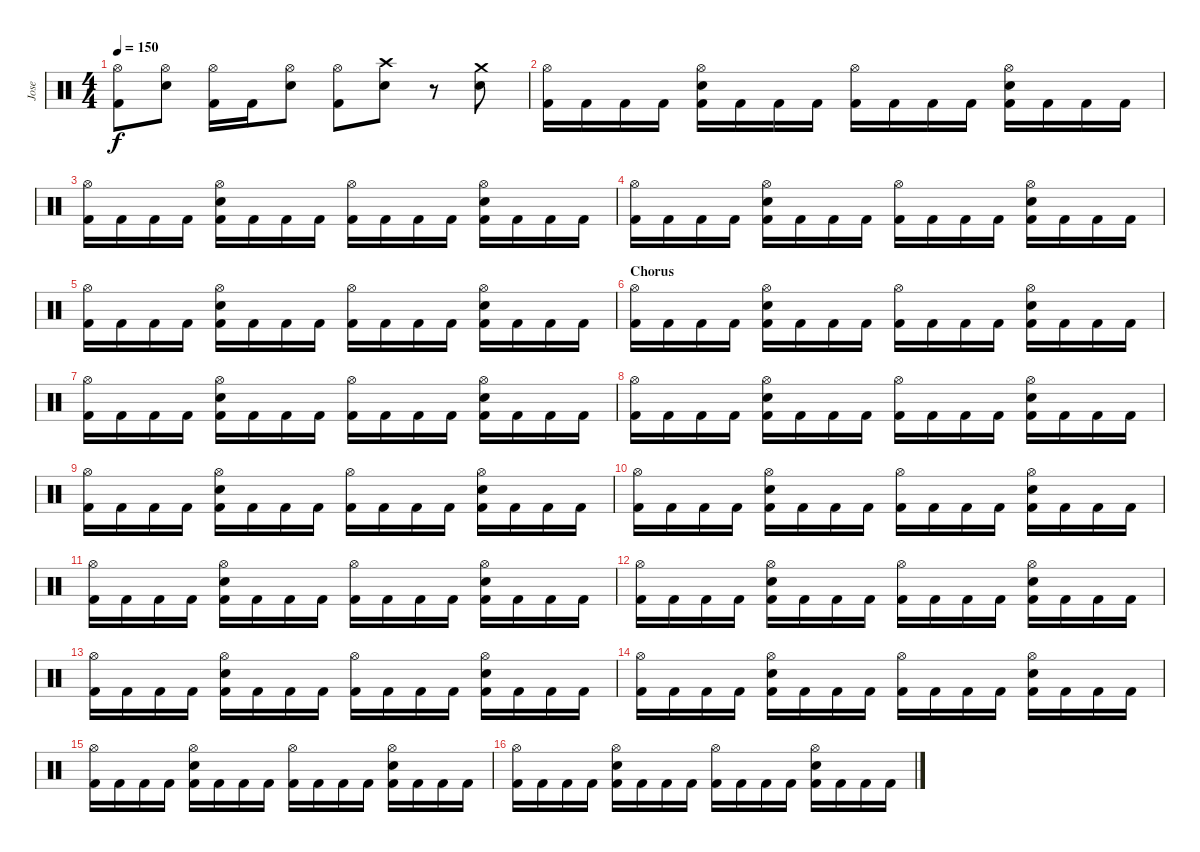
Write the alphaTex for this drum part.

\track ("Jose" "Jose") {instrument percussion}
\staff {score}
\articulation defaults
\ts (4 4)
\tempo 150
\clef neutral
\ks c
("Hi-Hat (open)" "Kick (hit) 2").8{dy f} ("Hi-Hat (open)" "Snare (hit) 2").8 ("Hi-Hat (open)" "Kick (hit) 2").16 "Kick (hit) 2".16 ("Hi-Hat (open)" "Snare (hit) 2").8 ("Hi-Hat (open)" "Kick (hit) 2").8 ("Crash high (hit)" "Snare (hit) 2").8 r.8 ("Crash medium (hit)" "Snare (hit) 2").8 |
("Hi-Hat (open)" "Kick (hit) 2").16 "Kick (hit) 2".16 "Kick (hit) 2".16 "Kick (hit) 2".16 ("Kick (hit) 2" "Snare (hit) 2" "Hi-Hat (open)").16 "Kick (hit) 2".16 "Kick (hit) 2".16 "Kick (hit) 2".16 ("Kick (hit) 2" "Hi-Hat (open)").16 "Kick (hit) 2".16 "Kick (hit) 2".16 "Kick (hit) 2".16 ("Kick (hit) 2" "Snare (hit) 2" "Hi-Hat (open)").16 "Kick (hit) 2".16 "Kick (hit) 2".16 "Kick (hit) 2".16 |
("Hi-Hat (open)" "Kick (hit) 2").16 "Kick (hit) 2".16 "Kick (hit) 2".16 "Kick (hit) 2".16 ("Kick (hit) 2" "Snare (hit) 2" "Hi-Hat (open)").16 "Kick (hit) 2".16 "Kick (hit) 2".16 "Kick (hit) 2".16 ("Kick (hit) 2" "Hi-Hat (open)").16 "Kick (hit) 2".16 "Kick (hit) 2".16 "Kick (hit) 2".16 ("Kick (hit) 2" "Snare (hit) 2" "Hi-Hat (open)").16 "Kick (hit) 2".16 "Kick (hit) 2".16 "Kick (hit) 2".16 |
("Hi-Hat (open)" "Kick (hit) 2").16 "Kick (hit) 2".16 "Kick (hit) 2".16 "Kick (hit) 2".16 ("Kick (hit) 2" "Snare (hit) 2" "Hi-Hat (open)").16 "Kick (hit) 2".16 "Kick (hit) 2".16 "Kick (hit) 2".16 ("Kick (hit) 2" "Hi-Hat (open)").16 "Kick (hit) 2".16 "Kick (hit) 2".16 "Kick (hit) 2".16 ("Kick (hit) 2" "Snare (hit) 2" "Hi-Hat (open)").16 "Kick (hit) 2".16 "Kick (hit) 2".16 "Kick (hit) 2".16 |
("Hi-Hat (open)" "Kick (hit) 2").16 "Kick (hit) 2".16 "Kick (hit) 2".16 "Kick (hit) 2".16 ("Kick (hit) 2" "Snare (hit) 2" "Hi-Hat (open)").16 "Kick (hit) 2".16 "Kick (hit) 2".16 "Kick (hit) 2".16 ("Kick (hit) 2" "Hi-Hat (open)").16 "Kick (hit) 2".16 "Kick (hit) 2".16 "Kick (hit) 2".16 ("Kick (hit) 2" "Snare (hit) 2" "Hi-Hat (open)").16 "Kick (hit) 2".16 "Kick (hit) 2".16 "Kick (hit) 2".16 |
\section ("" "Chorus")
("Hi-Hat (open)" "Kick (hit) 2").16 "Kick (hit) 2".16 "Kick (hit) 2".16 "Kick (hit) 2".16 ("Kick (hit) 2" "Snare (hit) 2" "Hi-Hat (open)").16 "Kick (hit) 2".16 "Kick (hit) 2".16 "Kick (hit) 2".16 ("Kick (hit) 2" "Hi-Hat (open)").16 "Kick (hit) 2".16 "Kick (hit) 2".16 "Kick (hit) 2".16 ("Kick (hit) 2" "Snare (hit) 2" "Hi-Hat (open)").16 "Kick (hit) 2".16 "Kick (hit) 2".16 "Kick (hit) 2".16 |
("Hi-Hat (open)" "Kick (hit) 2").16 "Kick (hit) 2".16 "Kick (hit) 2".16 "Kick (hit) 2".16 ("Kick (hit) 2" "Snare (hit) 2" "Hi-Hat (open)").16 "Kick (hit) 2".16 "Kick (hit) 2".16 "Kick (hit) 2".16 ("Kick (hit) 2" "Hi-Hat (open)").16 "Kick (hit) 2".16 "Kick (hit) 2".16 "Kick (hit) 2".16 ("Kick (hit) 2" "Snare (hit) 2" "Hi-Hat (open)").16 "Kick (hit) 2".16 "Kick (hit) 2".16 "Kick (hit) 2".16 |
("Hi-Hat (open)" "Kick (hit) 2").16 "Kick (hit) 2".16 "Kick (hit) 2".16 "Kick (hit) 2".16 ("Kick (hit) 2" "Snare (hit) 2" "Hi-Hat (open)").16 "Kick (hit) 2".16 "Kick (hit) 2".16 "Kick (hit) 2".16 ("Kick (hit) 2" "Hi-Hat (open)").16 "Kick (hit) 2".16 "Kick (hit) 2".16 "Kick (hit) 2".16 ("Kick (hit) 2" "Snare (hit) 2" "Hi-Hat (open)").16 "Kick (hit) 2".16 "Kick (hit) 2".16 "Kick (hit) 2".16 |
("Hi-Hat (open)" "Kick (hit) 2").16 "Kick (hit) 2".16 "Kick (hit) 2".16 "Kick (hit) 2".16 ("Kick (hit) 2" "Snare (hit) 2" "Hi-Hat (open)").16 "Kick (hit) 2".16 "Kick (hit) 2".16 "Kick (hit) 2".16 ("Kick (hit) 2" "Hi-Hat (open)").16 "Kick (hit) 2".16 "Kick (hit) 2".16 "Kick (hit) 2".16 ("Kick (hit) 2" "Snare (hit) 2" "Hi-Hat (open)").16 "Kick (hit) 2".16 "Kick (hit) 2".16 "Kick (hit) 2".16 |
("Hi-Hat (open)" "Kick (hit) 2").16 "Kick (hit) 2".16 "Kick (hit) 2".16 "Kick (hit) 2".16 ("Kick (hit) 2" "Snare (hit) 2" "Hi-Hat (open)").16 "Kick (hit) 2".16 "Kick (hit) 2".16 "Kick (hit) 2".16 ("Kick (hit) 2" "Hi-Hat (open)").16 "Kick (hit) 2".16 "Kick (hit) 2".16 "Kick (hit) 2".16 ("Kick (hit) 2" "Snare (hit) 2" "Hi-Hat (open)").16 "Kick (hit) 2".16 "Kick (hit) 2".16 "Kick (hit) 2".16 |
("Hi-Hat (open)" "Kick (hit) 2").16 "Kick (hit) 2".16 "Kick (hit) 2".16 "Kick (hit) 2".16 ("Kick (hit) 2" "Snare (hit) 2" "Hi-Hat (open)").16 "Kick (hit) 2".16 "Kick (hit) 2".16 "Kick (hit) 2".16 ("Kick (hit) 2" "Hi-Hat (open)").16 "Kick (hit) 2".16 "Kick (hit) 2".16 "Kick (hit) 2".16 ("Kick (hit) 2" "Snare (hit) 2" "Hi-Hat (open)").16 "Kick (hit) 2".16 "Kick (hit) 2".16 "Kick (hit) 2".16 |
("Hi-Hat (open)" "Kick (hit) 2").16 "Kick (hit) 2".16 "Kick (hit) 2".16 "Kick (hit) 2".16 ("Kick (hit) 2" "Snare (hit) 2" "Hi-Hat (open)").16 "Kick (hit) 2".16 "Kick (hit) 2".16 "Kick (hit) 2".16 ("Kick (hit) 2" "Hi-Hat (open)").16 "Kick (hit) 2".16 "Kick (hit) 2".16 "Kick (hit) 2".16 ("Kick (hit) 2" "Snare (hit) 2" "Hi-Hat (open)").16 "Kick (hit) 2".16 "Kick (hit) 2".16 "Kick (hit) 2".16 |
("Hi-Hat (open)" "Kick (hit) 2").16 "Kick (hit) 2".16 "Kick (hit) 2".16 "Kick (hit) 2".16 ("Kick (hit) 2" "Snare (hit) 2" "Hi-Hat (open)").16 "Kick (hit) 2".16 "Kick (hit) 2".16 "Kick (hit) 2".16 ("Kick (hit) 2" "Hi-Hat (open)").16 "Kick (hit) 2".16 "Kick (hit) 2".16 "Kick (hit) 2".16 ("Kick (hit) 2" "Snare (hit) 2" "Hi-Hat (open)").16 "Kick (hit) 2".16 "Kick (hit) 2".16 "Kick (hit) 2".16 |
("Hi-Hat (open)" "Kick (hit) 2").16 "Kick (hit) 2".16 "Kick (hit) 2".16 "Kick (hit) 2".16 ("Kick (hit) 2" "Snare (hit) 2" "Hi-Hat (open)").16 "Kick (hit) 2".16 "Kick (hit) 2".16 "Kick (hit) 2".16 ("Kick (hit) 2" "Hi-Hat (open)").16 "Kick (hit) 2".16 "Kick (hit) 2".16 "Kick (hit) 2".16 ("Kick (hit) 2" "Snare (hit) 2" "Hi-Hat (open)").16 "Kick (hit) 2".16 "Kick (hit) 2".16 "Kick (hit) 2".16 |
("Hi-Hat (open)" "Kick (hit) 2").16 "Kick (hit) 2".16 "Kick (hit) 2".16 "Kick (hit) 2".16 ("Kick (hit) 2" "Snare (hit) 2" "Hi-Hat (open)").16 "Kick (hit) 2".16 "Kick (hit) 2".16 "Kick (hit) 2".16 ("Kick (hit) 2" "Hi-Hat (open)").16 "Kick (hit) 2".16 "Kick (hit) 2".16 "Kick (hit) 2".16 ("Kick (hit) 2" "Snare (hit) 2" "Hi-Hat (open)").16 "Kick (hit) 2".16 "Kick (hit) 2".16 "Kick (hit) 2".16 |
("Hi-Hat (open)" "Kick (hit) 2").16 "Kick (hit) 2".16 "Kick (hit) 2".16 "Kick (hit) 2".16 ("Kick (hit) 2" "Snare (hit) 2" "Hi-Hat (open)").16 "Kick (hit) 2".16 "Kick (hit) 2".16 "Kick (hit) 2".16 ("Kick (hit) 2" "Hi-Hat (open)").16 "Kick (hit) 2".16 "Kick (hit) 2".16 "Kick (hit) 2".16 ("Kick (hit) 2" "Snare (hit) 2" "Hi-Hat (open)").16 "Kick (hit) 2".16 "Kick (hit) 2".16 "Kick (hit) 2".16
